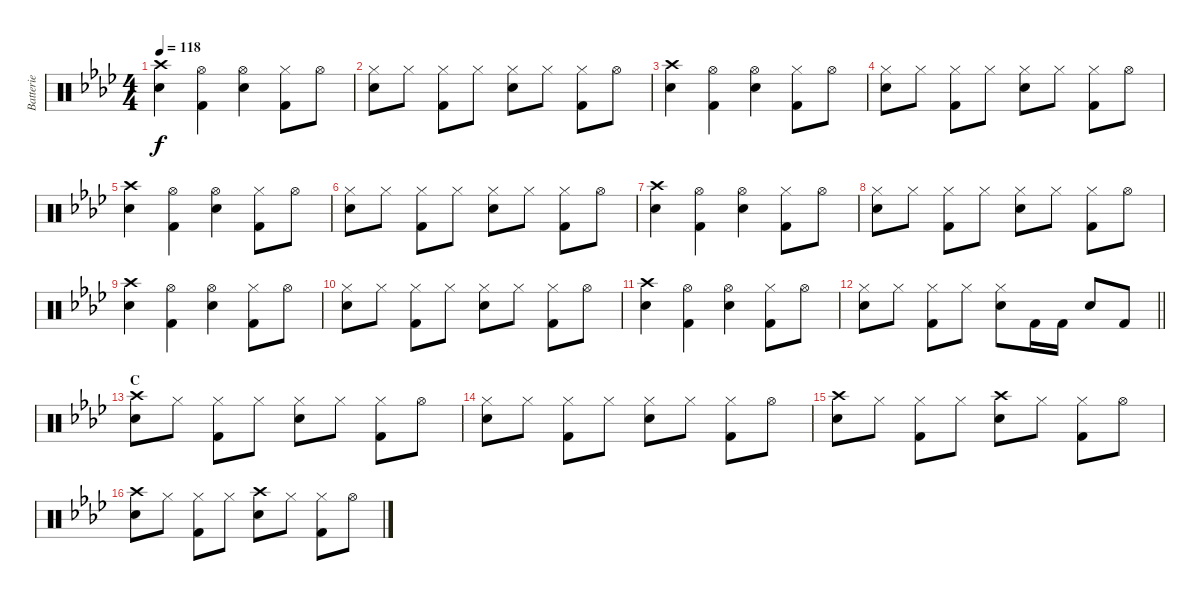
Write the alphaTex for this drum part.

\track ("Batterie" "Batterie") {instrument percussion}
\staff {score}
\articulation defaults
\ts (4 4)
\tempo 118
\clef neutral
\ks ab
("Crash high (hit)" "Snare (hit) 2").4{dy f} ("Hi-Hat (open)" "Kick (hit) 2").4 ("Hi-Hat (open)" "Snare (hit) 2").4 ("Hi-Hat (closed)" "Kick (hit) 2").8 "Hi-Hat (open)".8 |
("Hi-Hat (closed)" "Snare (hit) 2").8 "Hi-Hat (closed)".8 ("Hi-Hat (closed)" "Kick (hit) 2").8 "Hi-Hat (closed)".8 ("Hi-Hat (closed)" "Snare (hit) 2").8 "Hi-Hat (closed)".8 ("Hi-Hat (closed)" "Kick (hit) 2").8 "Hi-Hat (open)".8 |
("Crash high (hit)" "Snare (hit) 2").4 ("Hi-Hat (open)" "Kick (hit) 2").4 ("Hi-Hat (open)" "Snare (hit) 2").4 ("Hi-Hat (closed)" "Kick (hit) 2").8 "Hi-Hat (open)".8 |
("Hi-Hat (closed)" "Snare (hit) 2").8 "Hi-Hat (closed)".8 ("Hi-Hat (closed)" "Kick (hit) 2").8 "Hi-Hat (closed)".8 ("Hi-Hat (closed)" "Snare (hit) 2").8 "Hi-Hat (closed)".8 ("Hi-Hat (closed)" "Kick (hit) 2").8 "Hi-Hat (open)".8 |
("Crash high (hit)" "Snare (hit) 2").4 ("Hi-Hat (open)" "Kick (hit) 2").4 ("Hi-Hat (open)" "Snare (hit) 2").4 ("Hi-Hat (closed)" "Kick (hit) 2").8 "Hi-Hat (open)".8 |
("Hi-Hat (closed)" "Snare (hit) 2").8 "Hi-Hat (closed)".8 ("Hi-Hat (closed)" "Kick (hit) 2").8 "Hi-Hat (closed)".8 ("Hi-Hat (closed)" "Snare (hit) 2").8 "Hi-Hat (closed)".8 ("Hi-Hat (closed)" "Kick (hit) 2").8 "Hi-Hat (open)".8 |
("Crash high (hit)" "Snare (hit) 2").4 ("Hi-Hat (open)" "Kick (hit) 2").4 ("Hi-Hat (open)" "Snare (hit) 2").4 ("Hi-Hat (closed)" "Kick (hit) 2").8 "Hi-Hat (open)".8 |
("Hi-Hat (closed)" "Snare (hit) 2").8 "Hi-Hat (closed)".8 ("Hi-Hat (closed)" "Kick (hit) 2").8 "Hi-Hat (closed)".8 ("Hi-Hat (closed)" "Snare (hit) 2").8 "Hi-Hat (closed)".8 ("Hi-Hat (closed)" "Kick (hit) 2").8 "Hi-Hat (open)".8 |
("Crash high (hit)" "Snare (hit) 2").4 ("Hi-Hat (open)" "Kick (hit) 2").4 ("Hi-Hat (open)" "Snare (hit) 2").4 ("Hi-Hat (closed)" "Kick (hit) 2").8 "Hi-Hat (open)".8 |
("Hi-Hat (closed)" "Snare (hit) 2").8 "Hi-Hat (closed)".8 ("Hi-Hat (closed)" "Kick (hit) 2").8 "Hi-Hat (closed)".8 ("Hi-Hat (closed)" "Snare (hit) 2").8 "Hi-Hat (closed)".8 ("Hi-Hat (closed)" "Kick (hit) 2").8 "Hi-Hat (open)".8 |
("Crash high (hit)" "Snare (hit) 2").4 ("Hi-Hat (open)" "Kick (hit) 2").4 ("Hi-Hat (open)" "Snare (hit) 2").4 ("Hi-Hat (closed)" "Kick (hit) 2").8 "Hi-Hat (open)".8 |
\barLineRight lightlight
("Hi-Hat (closed)" "Snare (hit) 2").8 "Hi-Hat (closed)".8 ("Hi-Hat (closed)" "Kick (hit) 2").8 "Hi-Hat (closed)".8 ("Hi-Hat (closed)" "Snare (hit) 2").8 "Kick (hit) 2".16 "Kick (hit) 2".16 "Snare (hit) 2".8 "Kick (hit) 2".8 |
\section ("" "C")
("Crash high (hit)" "Snare (hit) 2").8 "Hi-Hat (closed)".8 ("Hi-Hat (closed)" "Kick (hit) 2").8 "Hi-Hat (closed)".8 ("Hi-Hat (closed)" "Snare (hit) 2").8 "Hi-Hat (closed)".8 ("Hi-Hat (closed)" "Kick (hit) 2").8 "Hi-Hat (open)".8 |
("Hi-Hat (closed)" "Snare (hit) 2").8 "Hi-Hat (closed)".8 ("Hi-Hat (closed)" "Kick (hit) 2").8 "Hi-Hat (closed)".8 ("Hi-Hat (closed)" "Snare (hit) 2").8 "Hi-Hat (closed)".8 ("Hi-Hat (closed)" "Kick (hit) 2").8 "Hi-Hat (open)".8 |
("Crash high (hit)" "Snare (hit) 2").8 "Hi-Hat (closed)".8 ("Hi-Hat (closed)" "Kick (hit) 2").8 "Hi-Hat (closed)".8 ("Crash high (hit)" "Snare (hit) 2").8 "Hi-Hat (closed)".8 ("Hi-Hat (closed)" "Kick (hit) 2").8 "Hi-Hat (open)".8 |
("Crash high (hit)" "Snare (hit) 2").8 "Hi-Hat (closed)".8 ("Hi-Hat (closed)" "Kick (hit) 2").8 "Hi-Hat (closed)".8 ("Crash high (hit)" "Snare (hit) 2").8 "Hi-Hat (closed)".8 ("Hi-Hat (closed)" "Kick (hit) 2").8 "Hi-Hat (open)".8
